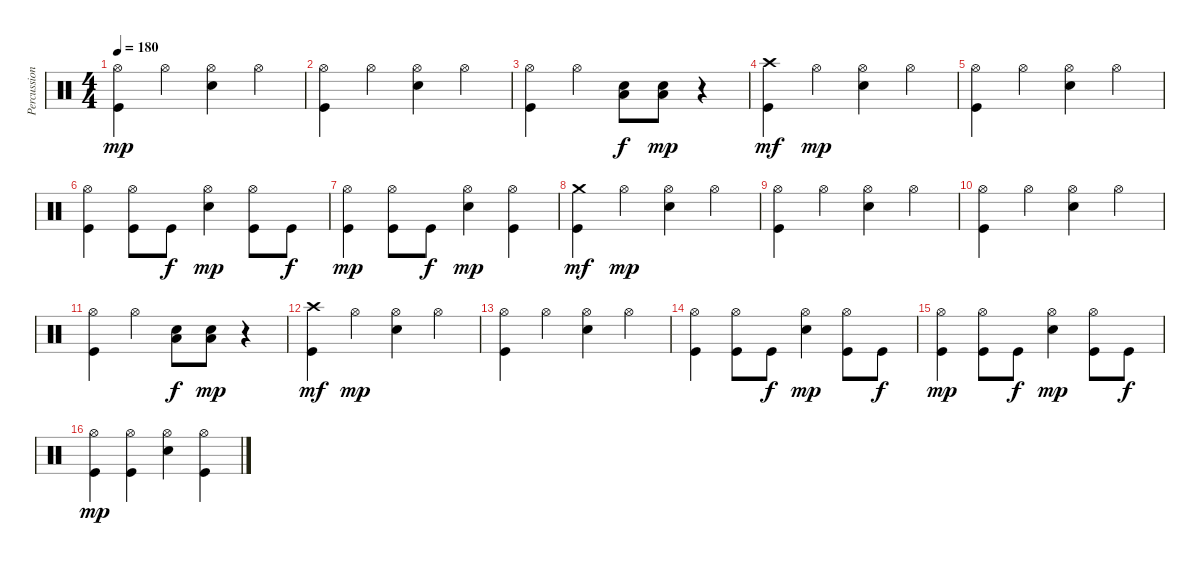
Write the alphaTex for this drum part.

\track ("Percussion" "Percussion") {instrument percussion}
\staff {score}
\articulation defaults
\ts (4 4)
\tempo 180
\clef neutral
\ks c
("Hi-Hat (open)" "Kick (hit)").4{dy mp} "Hi-Hat (open)".4 ("Hi-Hat (open)" "Snare (hit) 2").4 "Hi-Hat (open)".4 |
("Hi-Hat (open)" "Kick (hit)").4 "Hi-Hat (open)".4 ("Hi-Hat (open)" "Snare (hit) 2").4 "Hi-Hat (open)".4 |
("Hi-Hat (open)" "Kick (hit)").4 "Hi-Hat (open)".4 ("Low Floor Tom (hit)" "Snare (hit) 2").8{dy f} ("Low Floor Tom (hit)" "Snare (hit) 2").8{dy mp} r.4 |
("Crash high (hit)" "Kick (hit)").4{dy mf} "Hi-Hat (open)".4{dy mp} ("Hi-Hat (open)" "Snare (hit) 2").4 "Hi-Hat (open)".4 |
("Hi-Hat (open)" "Kick (hit)").4 "Hi-Hat (open)".4 ("Hi-Hat (open)" "Snare (hit) 2").4 "Hi-Hat (open)".4 |
("Hi-Hat (open)" "Kick (hit)").4 ("Hi-Hat (open)" "Kick (hit)").8 "Kick (hit)".8{dy f} ("Hi-Hat (open)" "Snare (hit) 2").4{dy mp} ("Hi-Hat (open)" "Kick (hit)").8 "Kick (hit)".8{dy f} |
("Hi-Hat (open)" "Kick (hit)").4{dy mp} ("Hi-Hat (open)" "Kick (hit)").8 "Kick (hit)".8{dy f} ("Hi-Hat (open)" "Snare (hit) 2").4{dy mp} ("Hi-Hat (open)" "Kick (hit)").4 |
("Crash medium (hit)" "Kick (hit)").4{dy mf} "Hi-Hat (open)".4{dy mp} ("Hi-Hat (open)" "Snare (hit) 2").4 "Hi-Hat (open)".4 |
("Hi-Hat (open)" "Kick (hit)").4 "Hi-Hat (open)".4 ("Hi-Hat (open)" "Snare (hit) 2").4 "Hi-Hat (open)".4 |
("Hi-Hat (open)" "Kick (hit)").4 "Hi-Hat (open)".4 ("Hi-Hat (open)" "Snare (hit) 2").4 "Hi-Hat (open)".4 |
("Hi-Hat (open)" "Kick (hit)").4 "Hi-Hat (open)".4 ("Low Floor Tom (hit)" "Snare (hit) 2").8{dy f} ("Low Floor Tom (hit)" "Snare (hit) 2").8{dy mp} r.4 |
("Crash high (hit)" "Kick (hit)").4{dy mf} "Hi-Hat (open)".4{dy mp} ("Hi-Hat (open)" "Snare (hit) 2").4 "Hi-Hat (open)".4 |
("Hi-Hat (open)" "Kick (hit)").4 "Hi-Hat (open)".4 ("Hi-Hat (open)" "Snare (hit) 2").4 "Hi-Hat (open)".4 |
("Hi-Hat (open)" "Kick (hit)").4 ("Hi-Hat (open)" "Kick (hit)").8 "Kick (hit)".8{dy f} ("Hi-Hat (open)" "Snare (hit) 2").4{dy mp} ("Hi-Hat (open)" "Kick (hit)").8 "Kick (hit)".8{dy f} |
("Hi-Hat (open)" "Kick (hit)").4{dy mp} ("Hi-Hat (open)" "Kick (hit)").8 "Kick (hit)".8{dy f} ("Hi-Hat (open)" "Snare (hit) 2").4{dy mp} ("Hi-Hat (open)" "Kick (hit)").8 "Kick (hit)".8{dy f} |
("Hi-Hat (open)" "Kick (hit)").4{dy mp} ("Hi-Hat (open)" "Kick (hit)").4 ("Hi-Hat (open)" "Snare (hit) 2").4 ("Hi-Hat (open)" "Kick (hit)").4
